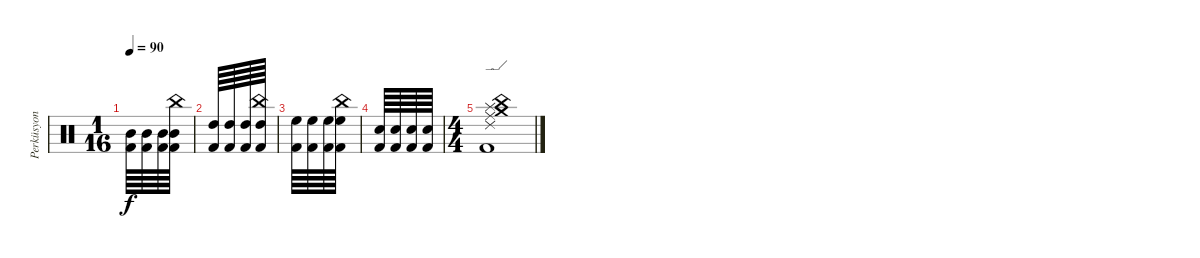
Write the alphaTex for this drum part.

\track ("Perküsyon" "Perküsyon") {instrument percussion}
\staff {score}
\articulation defaults
\ts (1 16)
\tempo 90
\clef neutral
\ks c
("Mid Tom (hit)" "Kick (hit) 2").64{dy f} ("Mid Tom (hit)" "Kick (hit) 2").64 ("Mid Tom (hit)" "Kick (hit) 2").64 ("China (hit)" "Mid Tom (hit)" "Kick (hit) 2").64 |
("High Tom (hit)" "Kick (hit) 2").64 ("High Tom (hit)" "Kick (hit) 2").64 ("High Tom (hit)" "Kick (hit) 2").64 ("China (hit)" "High Tom (hit)" "Kick (hit) 2").64 |
("High Floor Tom (hit)" "Kick (hit) 2").64 ("High Floor Tom (hit)" "Kick (hit) 2").64 ("High Floor Tom (hit)" "Kick (hit) 2").64 ("China (hit)" "High Floor Tom (hit)" "Kick (hit) 2").64 |
("Electric Snare (hit)" "Kick (hit) 2").64 ("Electric Snare (hit)" "Kick (hit) 2").64 ("Electric Snare (hit)" "Kick (hit) 2").64 ("Electric Snare (hit)" "Kick (hit) 2").64 |
\ts (4 4)
("China (hit)" "Crash medium (hit)" "Splash (hit)" "Ride (middle)" "Ride (edge) 2" "Kick (hit) 2").1
